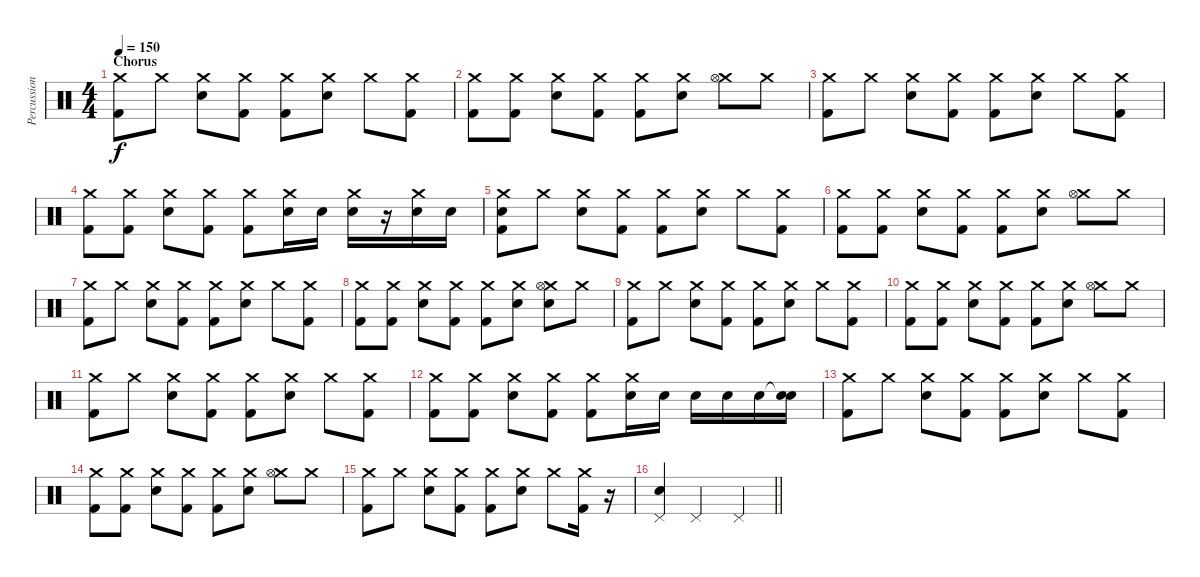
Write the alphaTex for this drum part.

\track ("Percussion" "Percussion") {instrument percussion}
\staff {score}
\articulation defaults
\ts (4 4)
\section ("" "Chorus")
\tempo 150
\clef neutral
\ks c
("Crash medium (hit)" "Kick (hit) 2").8{dy f} "Crash medium (hit)".8 ("Crash medium (hit)" "Electric Snare (hit)").8 ("Crash medium (hit)" "Kick (hit) 2").8 ("Crash medium (hit)" "Kick (hit) 2").8 ("Crash medium (hit)" "Electric Snare (hit)").8 "Crash medium (hit)".8 ("Crash medium (hit)" "Kick (hit) 2").8 |
("Crash medium (hit)" "Kick (hit) 2").8 ("Crash medium (hit)" "Kick (hit) 2").8 ("Crash medium (hit)" "Electric Snare (hit)").8 ("Crash medium (hit)" "Kick (hit) 2").8 ("Crash medium (hit)" "Kick (hit) 2").8 ("Crash medium (hit)" "Electric Snare (hit)").8 ("Crash medium (hit)" "Hi-Hat (open)").8 "Crash medium (hit)".8 |
("Crash medium (hit)" "Kick (hit) 2").8 "Crash medium (hit)".8 ("Crash medium (hit)" "Electric Snare (hit)").8 ("Crash medium (hit)" "Kick (hit) 2").8 ("Crash medium (hit)" "Kick (hit) 2").8 ("Crash medium (hit)" "Electric Snare (hit)").8 "Crash medium (hit)".8 ("Crash medium (hit)" "Kick (hit) 2").8 |
("Crash medium (hit)" "Kick (hit) 2").8 ("Crash medium (hit)" "Kick (hit) 2").8 ("Crash medium (hit)" "Electric Snare (hit)").8 ("Crash medium (hit)" "Kick (hit) 2").8 ("Crash medium (hit)" "Kick (hit) 2").8 ("Crash medium (hit)" "Electric Snare (hit)").16 "Electric Snare (hit)".16 ("Crash medium (hit)" "Electric Snare (hit)").16 r.16 ("Crash medium (hit)" "Electric Snare (hit)").16 "Electric Snare (hit)".16 |
("Crash medium (hit)" "Electric Snare (hit)" "Kick (hit) 2").8 "Crash medium (hit)".8 ("Crash medium (hit)" "Electric Snare (hit)").8 ("Crash medium (hit)" "Kick (hit) 2").8 ("Crash medium (hit)" "Kick (hit) 2").8 ("Crash medium (hit)" "Electric Snare (hit)").8 "Crash medium (hit)".8 ("Crash medium (hit)" "Kick (hit) 2").8 |
("Crash medium (hit)" "Kick (hit) 2").8 ("Crash medium (hit)" "Kick (hit) 2").8 ("Crash medium (hit)" "Electric Snare (hit)").8 ("Crash medium (hit)" "Kick (hit) 2").8 ("Crash medium (hit)" "Kick (hit) 2").8 ("Crash medium (hit)" "Electric Snare (hit)").8 ("Crash medium (hit)" "Hi-Hat (open)").8 "Crash medium (hit)".8 |
("Crash medium (hit)" "Kick (hit) 2").8 "Crash medium (hit)".8 ("Crash medium (hit)" "Electric Snare (hit)").8 ("Crash medium (hit)" "Kick (hit) 2").8 ("Crash medium (hit)" "Kick (hit) 2").8 ("Crash medium (hit)" "Electric Snare (hit)").8 "Crash medium (hit)".8 ("Crash medium (hit)" "Kick (hit) 2").8 |
("Crash medium (hit)" "Kick (hit) 2").8 ("Crash medium (hit)" "Kick (hit) 2").8 ("Crash medium (hit)" "Electric Snare (hit)").8 ("Crash medium (hit)" "Kick (hit) 2").8 ("Crash medium (hit)" "Kick (hit) 2").8 ("Crash medium (hit)" "Electric Snare (hit)").8 ("Crash medium (hit)" "Hi-Hat (open)" "Electric Snare (hit)").8 "Crash medium (hit)".8 |
("Crash medium (hit)" "Kick (hit) 2").8 "Crash medium (hit)".8 ("Crash medium (hit)" "Electric Snare (hit)").8 ("Crash medium (hit)" "Kick (hit) 2").8 ("Crash medium (hit)" "Kick (hit) 2").8 ("Crash medium (hit)" "Electric Snare (hit)").8 "Crash medium (hit)".8 ("Crash medium (hit)" "Kick (hit) 2").8 |
("Crash medium (hit)" "Kick (hit) 2").8 ("Crash medium (hit)" "Kick (hit) 2").8 ("Crash medium (hit)" "Electric Snare (hit)").8 ("Crash medium (hit)" "Kick (hit) 2").8 ("Crash medium (hit)" "Kick (hit) 2").8 ("Crash medium (hit)" "Electric Snare (hit)").8 ("Crash medium (hit)" "Hi-Hat (open)").8 "Crash medium (hit)".8 |
("Crash medium (hit)" "Kick (hit) 2").8 "Crash medium (hit)".8 ("Crash medium (hit)" "Electric Snare (hit)").8 ("Crash medium (hit)" "Kick (hit) 2").8 ("Crash medium (hit)" "Kick (hit) 2").8 ("Crash medium (hit)" "Electric Snare (hit)").8 "Crash medium (hit)".8 ("Crash medium (hit)" "Kick (hit) 2").8 |
("Crash medium (hit)" "Kick (hit) 2").8 ("Crash medium (hit)" "Kick (hit) 2").8 ("Crash medium (hit)" "Electric Snare (hit)").8 ("Crash medium (hit)" "Kick (hit) 2").8 ("Crash medium (hit)" "Kick (hit) 2").8 ("Crash medium (hit)" "Electric Snare (hit)").16 "Electric Snare (hit)".16 "Electric Snare (hit)".16 "Electric Snare (hit)".16 "Electric Snare (hit)".16 ("Snare (hit)"{t} "Electric Snare (hit)").16 |
("Crash medium (hit)" "Kick (hit) 2").8 "Crash medium (hit)".8 ("Crash medium (hit)" "Electric Snare (hit)").8 ("Crash medium (hit)" "Kick (hit) 2").8 ("Crash medium (hit)" "Kick (hit) 2").8 ("Crash medium (hit)" "Electric Snare (hit)").8 "Crash medium (hit)".8 ("Crash medium (hit)" "Kick (hit) 2").8 |
("Crash medium (hit)" "Kick (hit) 2").8 ("Crash medium (hit)" "Kick (hit) 2").8 ("Crash medium (hit)" "Electric Snare (hit)").8 ("Crash medium (hit)" "Kick (hit) 2").8 ("Crash medium (hit)" "Kick (hit) 2").8 ("Crash medium (hit)" "Electric Snare (hit)").8 ("Crash medium (hit)" "Hi-Hat (open)").8 "Crash medium (hit)".8 |
("Crash medium (hit)" "Kick (hit) 2").8 "Crash medium (hit)".8 ("Crash medium (hit)" "Electric Snare (hit)").8 ("Crash medium (hit)" "Kick (hit) 2").8 ("Crash medium (hit)" "Kick (hit) 2").8 ("Crash medium (hit)" "Electric Snare (hit)").8 "Crash medium (hit)".8 ("Crash medium (hit)" "Kick (hit) 2").16 r.16 |
\barLineRight lightlight
("Pedal Hi-Hat (hit)" "Electric Snare (hit)").4 "Pedal Hi-Hat (hit)".2 "Pedal Hi-Hat (hit)".4
